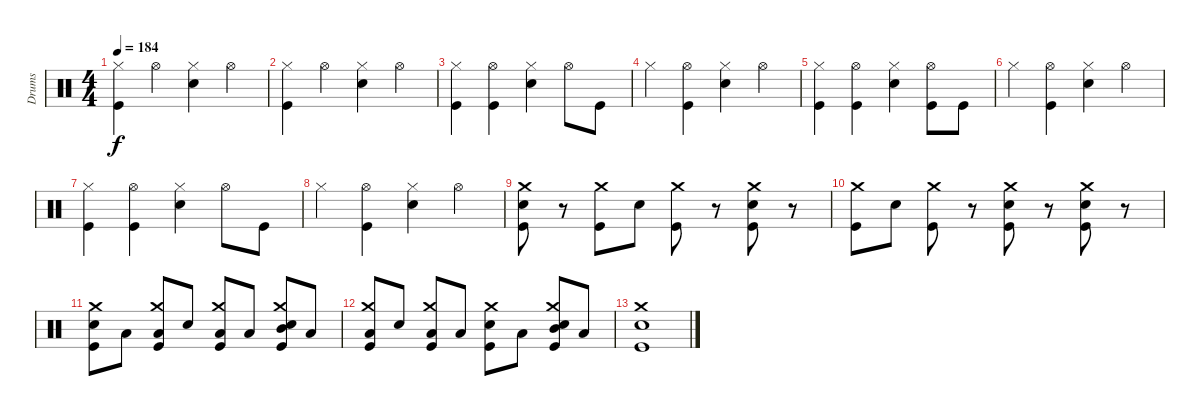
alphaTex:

\track ("Drums" "Drums") {instrument percussion}
\staff {score}
\articulation defaults
\ts (4 4)
\tempo 184
\clef neutral
\ks c
("Hi-Hat (closed)" "Kick (hit)").4{dy f} "Hi-Hat (open)".4 ("Hi-Hat (closed)" "Electric Snare (hit)").4 "Hi-Hat (open)".4 |
("Hi-Hat (closed)" "Kick (hit)").4 "Hi-Hat (open)".4 ("Hi-Hat (closed)" "Electric Snare (hit)").4 "Hi-Hat (open)".4 |
("Hi-Hat (closed)" "Kick (hit)").4 ("Hi-Hat (open)" "Kick (hit)").4 ("Hi-Hat (closed)" "Electric Snare (hit)").4 "Hi-Hat (open)".8 "Kick (hit)".8 |
"Hi-Hat (closed)".4 ("Hi-Hat (open)" "Kick (hit)").4 ("Hi-Hat (closed)" "Electric Snare (hit)").4 "Hi-Hat (open)".4 |
("Hi-Hat (closed)" "Kick (hit)").4 ("Hi-Hat (open)" "Kick (hit)").4 ("Hi-Hat (closed)" "Electric Snare (hit)").4 ("Hi-Hat (open)" "Kick (hit)").8 "Kick (hit)".8 |
"Hi-Hat (closed)".4 ("Hi-Hat (open)" "Kick (hit)").4 ("Hi-Hat (closed)" "Electric Snare (hit)").4 "Hi-Hat (open)".4 |
("Hi-Hat (closed)" "Kick (hit)").4 ("Hi-Hat (open)" "Kick (hit)").4 ("Hi-Hat (closed)" "Electric Snare (hit)").4 "Hi-Hat (open)".8 "Kick (hit)".8 |
"Hi-Hat (closed)".4 ("Hi-Hat (open)" "Kick (hit)").4 ("Hi-Hat (closed)" "Electric Snare (hit)").4 "Hi-Hat (open)".4 |
("Crash medium (hit)" "Electric Snare (hit)" "Kick (hit)").8 r.8 ("Crash medium (hit)" "Kick (hit)").8 "Electric Snare (hit)".8 ("Crash medium (hit)" "Kick (hit)").8 r.8 ("Crash medium (hit)" "Electric Snare (hit)" "Kick (hit)").8 r.8 |
("Crash medium (hit)" "Kick (hit)").8 "Electric Snare (hit)".8 ("Crash medium (hit)" "Kick (hit)").8 r.8 ("Crash medium (hit)" "Electric Snare (hit)" "Kick (hit)").8 r.8 ("Crash medium (hit)" "Electric Snare (hit)" "Kick (hit)").8 r.8 |
("Crash medium (hit)" "Electric Snare (hit)" "Kick (hit)").8 "Low Tom (hit)".8 ("Crash medium (hit)" "Low Tom (hit)" "Kick (hit)").8 "Electric Snare (hit)".8 ("Crash medium (hit)" "Low Tom (hit)" "Kick (hit)").8 "Low Tom (hit)".8 ("Crash medium (hit)" "Mid Tom (hit)" "Electric Snare (hit)" "Kick (hit)").8 "Low Tom (hit)".8 |
("Crash medium (hit)" "Low Tom (hit)" "Kick (hit)").8 "Electric Snare (hit)".8 ("Crash medium (hit)" "Low Tom (hit)" "Kick (hit)").8 "Low Tom (hit)".8 ("Crash medium (hit)" "Electric Snare (hit)" "Kick (hit)").8 "Low Tom (hit)".8 ("Crash medium (hit)" "Mid Tom (hit)" "Electric Snare (hit)" "Kick (hit)").8 "Low Tom (hit)".8 |
("Crash medium (hit)" "Electric Snare (hit)" "Kick (hit)").1
